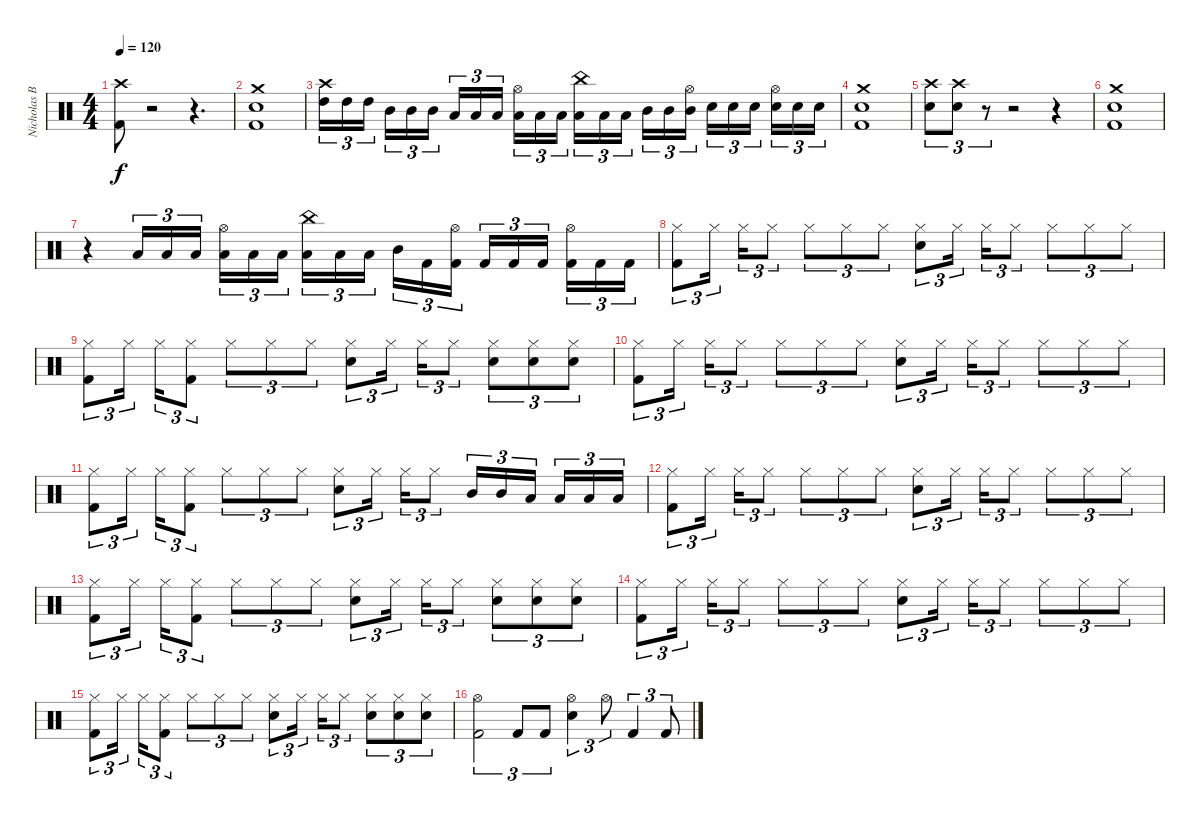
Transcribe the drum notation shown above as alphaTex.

\track ("Nicholas Barker" "Nicholas B") {instrument percussion}
\staff {score}
\articulation defaults
\ts (4 4)
\tempo 120
\clef neutral
\ks c
("Crash high (hit)" "Kick (hit) 2").8{dy f} r.2 r.4{d} |
("Crash medium (hit)" "Snare (hit) 2" "Kick (hit) 2").1 |
("High Tom (hit)" "Crash high (hit)").16{tu (3 2)} "High Tom (hit)".16{tu (3 2)} "High Tom (hit)".16{tu (3 2)} "Mid Tom (hit)".16{tu (3 2)} "Mid Tom (hit)".16{tu (3 2)} "Mid Tom (hit)".16{tu (3 2)} "Low Tom (hit)".16{tu (3 2)} "Low Tom (hit)".16{tu (3 2)} "Low Tom (hit)".16{tu (3 2)} ("Low Floor Tom (hit)" "Hi-Hat (open)").16{tu (3 2)} "Low Floor Tom (hit)".16{tu (3 2)} "Low Floor Tom (hit)".16{tu (3 2)} ("Low Tom (hit)" "China (hit)").16{tu (3 2)} "Low Tom (hit)".16{tu (3 2)} "Low Tom (hit)".16{tu (3 2)} "Mid Tom (hit)".16{tu (3 2)} "Mid Tom (hit)".16{tu (3 2)} ("Mid Tom (hit)" "Hi-Hat (open)").16{tu (3 2)} "Snare (hit) 2".16{tu (3 2)} "Snare (hit) 2".16{tu (3 2)} "Snare (hit) 2".16{tu (3 2)} ("Snare (hit) 2" "Hi-Hat (open)").16{tu (3 2)} "Snare (hit) 2".16{tu (3 2)} "Snare (hit) 2".16{tu (3 2)} |
("Crash medium (hit)" "Snare (hit) 2" "Kick (hit) 2").1 |
("Crash high (hit)" "Snare (hit) 2").8{tu (3 2)} ("Crash high (hit)" "Snare (hit) 2").8{tu (3 2)} r.8{tu (3 2)} r.2 r.4 |
("Crash medium (hit)" "Snare (hit) 2" "Kick (hit) 2").1 |
r.4 "Low Tom (hit)".16{tu (3 2)} "Low Tom (hit)".16{tu (3 2)} "Low Tom (hit)".16{tu (3 2)} ("Low Floor Tom (hit)" "Hi-Hat (open)").16{tu (3 2)} "Low Floor Tom (hit)".16{tu (3 2)} "Low Floor Tom (hit)".16{tu (3 2)} ("Low Tom (hit)" "China (hit)").16{tu (3 2)} "Low Tom (hit)".16{tu (3 2)} "Low Tom (hit)".16{tu (3 2)} "Mid Tom (hit)".16{tu (3 2)} "Kick (hit) 2".16{tu (3 2)} ("Kick (hit) 2" "Hi-Hat (open)").16{tu (3 2)} "Kick (hit) 2".16{tu (3 2)} "Kick (hit) 2".16{tu (3 2)} "Kick (hit) 2".16{tu (3 2)} ("Kick (hit) 2" "Hi-Hat (open)").16{tu (3 2)} "Kick (hit) 2".16{tu (3 2)} "Kick (hit) 2".16{tu (3 2)} |
("Hi-Hat (closed)" "Kick (hit) 2").8{tu (3 2)} "Hi-Hat (closed)".16{tu (3 2)} "Hi-Hat (closed)".16{tu (3 2)} "Hi-Hat (closed)".8{tu (3 2)} "Hi-Hat (closed)".8{tu (3 2)} "Hi-Hat (closed)".8{tu (3 2)} "Hi-Hat (closed)".8{tu (3 2)} ("Hi-Hat (closed)" "Snare (hit) 2").8{tu (3 2)} "Hi-Hat (closed)".16{tu (3 2)} "Hi-Hat (closed)".16{tu (3 2)} "Hi-Hat (closed)".8{tu (3 2)} "Hi-Hat (closed)".8{tu (3 2)} "Hi-Hat (closed)".8{tu (3 2)} "Hi-Hat (closed)".8{tu (3 2)} |
("Hi-Hat (closed)" "Kick (hit) 2").8{tu (3 2)} "Hi-Hat (closed)".16{tu (3 2)} "Hi-Hat (closed)".16{tu (3 2)} ("Hi-Hat (closed)" "Kick (hit) 2").8{tu (3 2)} "Hi-Hat (closed)".8{tu (3 2)} "Hi-Hat (closed)".8{tu (3 2)} "Hi-Hat (closed)".8{tu (3 2)} ("Hi-Hat (closed)" "Snare (hit) 2").8{tu (3 2)} "Hi-Hat (closed)".16{tu (3 2)} "Hi-Hat (closed)".16{tu (3 2)} "Hi-Hat (closed)".8{tu (3 2)} ("Hi-Hat (closed)" "Snare (hit) 2").8{tu (3 2)} ("Hi-Hat (closed)" "Snare (hit) 2").8{tu (3 2)} ("Hi-Hat (closed)" "Snare (hit) 2").8{tu (3 2)} |
("Hi-Hat (closed)" "Kick (hit) 2").8{tu (3 2)} "Hi-Hat (closed)".16{tu (3 2)} "Hi-Hat (closed)".16{tu (3 2)} "Hi-Hat (closed)".8{tu (3 2)} "Hi-Hat (closed)".8{tu (3 2)} "Hi-Hat (closed)".8{tu (3 2)} "Hi-Hat (closed)".8{tu (3 2)} ("Hi-Hat (closed)" "Snare (hit) 2").8{tu (3 2)} "Hi-Hat (closed)".16{tu (3 2)} "Hi-Hat (closed)".16{tu (3 2)} "Hi-Hat (closed)".8{tu (3 2)} "Hi-Hat (closed)".8{tu (3 2)} "Hi-Hat (closed)".8{tu (3 2)} "Hi-Hat (closed)".8{tu (3 2)} |
("Hi-Hat (closed)" "Kick (hit) 2").8{tu (3 2)} "Hi-Hat (closed)".16{tu (3 2)} "Hi-Hat (closed)".16{tu (3 2)} ("Hi-Hat (closed)" "Kick (hit) 2").8{tu (3 2)} "Hi-Hat (closed)".8{tu (3 2)} "Hi-Hat (closed)".8{tu (3 2)} "Hi-Hat (closed)".8{tu (3 2)} ("Hi-Hat (closed)" "Snare (hit) 2").8{tu (3 2)} "Hi-Hat (closed)".16{tu (3 2)} "Hi-Hat (closed)".16{tu (3 2)} "Hi-Hat (closed)".8{tu (3 2)} "Mid Tom (hit)".16{tu (3 2)} "Mid Tom (hit)".16{tu (3 2)} "Low Tom (hit)".16{tu (3 2)} "Low Tom (hit)".16{tu (3 2)} "Low Floor Tom (hit)".16{tu (3 2)} "Low Floor Tom (hit)".16{tu (3 2)} |
("Hi-Hat (closed)" "Kick (hit) 2").8{tu (3 2)} "Hi-Hat (closed)".16{tu (3 2)} "Hi-Hat (closed)".16{tu (3 2)} "Hi-Hat (closed)".8{tu (3 2)} "Hi-Hat (closed)".8{tu (3 2)} "Hi-Hat (closed)".8{tu (3 2)} "Hi-Hat (closed)".8{tu (3 2)} ("Hi-Hat (closed)" "Snare (hit) 2").8{tu (3 2)} "Hi-Hat (closed)".16{tu (3 2)} "Hi-Hat (closed)".16{tu (3 2)} "Hi-Hat (closed)".8{tu (3 2)} "Hi-Hat (closed)".8{tu (3 2)} "Hi-Hat (closed)".8{tu (3 2)} "Hi-Hat (closed)".8{tu (3 2)} |
("Hi-Hat (closed)" "Kick (hit) 2").8{tu (3 2)} "Hi-Hat (closed)".16{tu (3 2)} "Hi-Hat (closed)".16{tu (3 2)} ("Hi-Hat (closed)" "Kick (hit) 2").8{tu (3 2)} "Hi-Hat (closed)".8{tu (3 2)} "Hi-Hat (closed)".8{tu (3 2)} "Hi-Hat (closed)".8{tu (3 2)} ("Hi-Hat (closed)" "Snare (hit) 2").8{tu (3 2)} "Hi-Hat (closed)".16{tu (3 2)} "Hi-Hat (closed)".16{tu (3 2)} "Hi-Hat (closed)".8{tu (3 2)} ("Hi-Hat (closed)" "Snare (hit) 2").8{tu (3 2)} ("Hi-Hat (closed)" "Snare (hit) 2").8{tu (3 2)} ("Hi-Hat (closed)" "Snare (hit) 2").8{tu (3 2)} |
("Hi-Hat (closed)" "Kick (hit) 2").8{tu (3 2)} "Hi-Hat (closed)".16{tu (3 2)} "Hi-Hat (closed)".16{tu (3 2)} "Hi-Hat (closed)".8{tu (3 2)} "Hi-Hat (closed)".8{tu (3 2)} "Hi-Hat (closed)".8{tu (3 2)} "Hi-Hat (closed)".8{tu (3 2)} ("Hi-Hat (closed)" "Snare (hit) 2").8{tu (3 2)} "Hi-Hat (closed)".16{tu (3 2)} "Hi-Hat (closed)".16{tu (3 2)} "Hi-Hat (closed)".8{tu (3 2)} "Hi-Hat (closed)".8{tu (3 2)} "Hi-Hat (closed)".8{tu (3 2)} "Hi-Hat (closed)".8{tu (3 2)} |
("Hi-Hat (closed)" "Kick (hit) 2").8{tu (3 2)} "Hi-Hat (closed)".16{tu (3 2)} "Hi-Hat (closed)".16{tu (3 2)} ("Hi-Hat (closed)" "Kick (hit) 2").8{tu (3 2)} "Hi-Hat (closed)".8{tu (3 2)} "Hi-Hat (closed)".8{tu (3 2)} "Hi-Hat (closed)".8{tu (3 2)} ("Hi-Hat (closed)" "Snare (hit) 2").8{tu (3 2)} "Hi-Hat (closed)".16{tu (3 2)} "Hi-Hat (closed)".16{tu (3 2)} "Hi-Hat (closed)".8{tu (3 2)} ("Hi-Hat (closed)" "Snare (hit) 2").8{tu (3 2)} ("Hi-Hat (closed)" "Snare (hit) 2").8{tu (3 2)} ("Hi-Hat (closed)" "Snare (hit) 2").8{tu (3 2)} |
("Kick (hit) 2" "Hi-Hat (open)").2{tu (3 2)} "Kick (hit) 2".8{tu (3 2)} "Kick (hit) 2".8{tu (3 2)} ("Snare (hit) 2" "Hi-Hat (open)").4{tu (3 2)} "Hi-Hat (open)".8{tu (3 2)} "Kick (hit) 2".4{tu (3 2)} "Kick (hit) 2".8{tu (3 2)}
